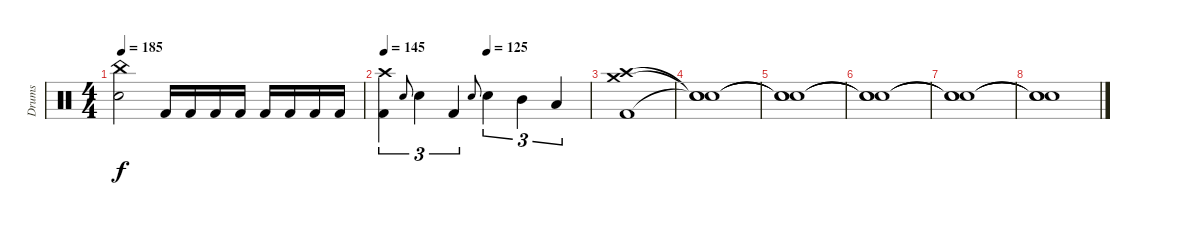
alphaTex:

\track ("Drums" "Drums") {instrument percussion}
\staff {score}
\articulation defaults
\ts (4 4)
\tempo 185
\clef neutral
\ks c
("China (hit)" "Electric Snare (hit)").2{dy f} "Kick (hit) 2".16 "Kick (hit) 2".16 "Kick (hit) 2".16 "Kick (hit) 2".16 "Kick (hit) 2".16 "Kick (hit) 2".16 "Kick (hit) 2".16 "Kick (hit) 2".16 |
\tempo 145
\tempo (125 0.5)
("Crash high (hit)" "Kick (hit) 2").4{tu (3 2)} "Electric Snare (hit)".8{gr onbeat} "Electric Snare (hit)".4{tu (3 2)} "Kick (hit) 2".4{tu (3 2)} "Electric Snare (hit)".8{gr onbeat} "Electric Snare (hit)".4{tu (3 2)} "Mid Tom (hit)".4{tu (3 2)} "Low Tom (hit)".4{tu (3 2)} |
("Crash medium (hit)" "Crash high (hit)" "Kick (hit) 2").1 |
("Snare (hit)"{t} "Snare (hit)"{t} "Snare (hit)"{t}).1 |
("Snare (hit)"{t} "Snare (hit)"{t} "Snare (hit)"{t}).1 |
("Snare (hit)"{t} "Snare (hit)"{t} "Snare (hit)"{t}).1 |
("Snare (hit)"{t} "Snare (hit)"{t} "Snare (hit)"{t}).1 |
("Snare (hit)"{t} "Snare (hit)"{t} "Snare (hit)"{t}).1
